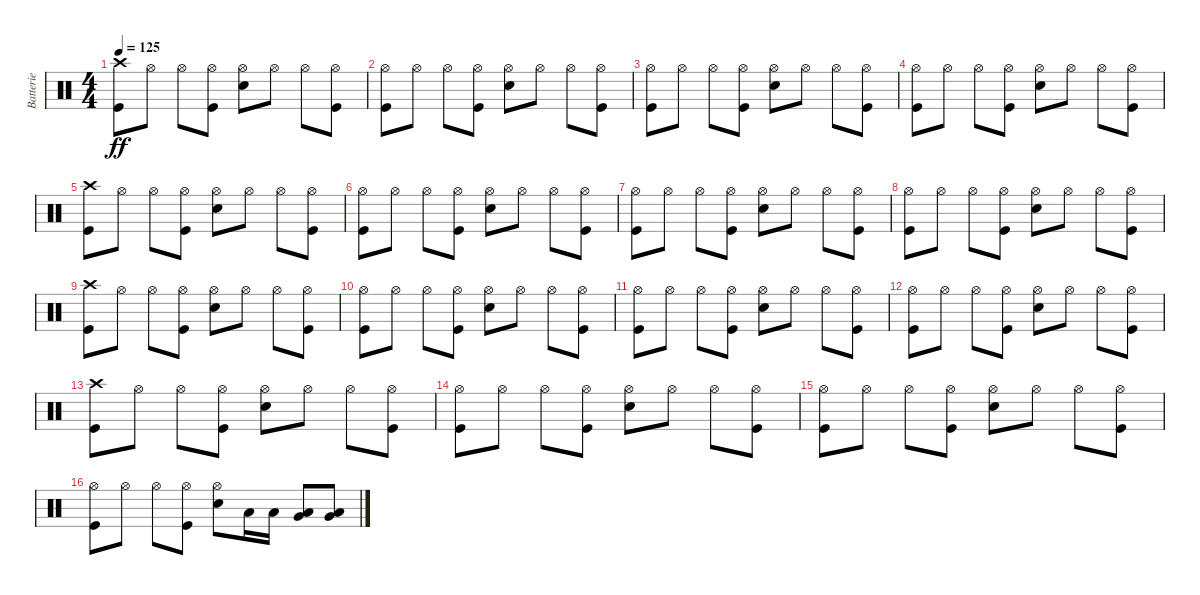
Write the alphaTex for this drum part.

\track ("Batterie" "Batterie") {instrument percussion}
\staff {score}
\articulation defaults
\ts (4 4)
\tempo 125
\clef neutral
\ks c
("Crash high (hit)" "Kick (hit)").8{dy ff} "Hi-Hat (open)".8 "Hi-Hat (open)".8 ("Hi-Hat (open)" "Kick (hit)").8 ("Hi-Hat (open)" "Electric Snare (hit)").8 "Hi-Hat (open)".8 "Hi-Hat (open)".8 ("Hi-Hat (open)" "Kick (hit)").8 |
("Hi-Hat (open)" "Kick (hit)").8 "Hi-Hat (open)".8 "Hi-Hat (open)".8 ("Hi-Hat (open)" "Kick (hit)").8 ("Hi-Hat (open)" "Electric Snare (hit)").8 "Hi-Hat (open)".8 "Hi-Hat (open)".8 ("Hi-Hat (open)" "Kick (hit)").8 |
("Hi-Hat (open)" "Kick (hit)").8 "Hi-Hat (open)".8 "Hi-Hat (open)".8 ("Hi-Hat (open)" "Kick (hit)").8 ("Hi-Hat (open)" "Electric Snare (hit)").8 "Hi-Hat (open)".8 "Hi-Hat (open)".8 ("Hi-Hat (open)" "Kick (hit)").8 |
("Hi-Hat (open)" "Kick (hit)").8 "Hi-Hat (open)".8 "Hi-Hat (open)".8 ("Hi-Hat (open)" "Kick (hit)").8 ("Hi-Hat (open)" "Electric Snare (hit)").8 "Hi-Hat (open)".8 "Hi-Hat (open)".8 ("Hi-Hat (open)" "Kick (hit)").8 |
("Crash high (hit)" "Kick (hit)").8 "Hi-Hat (open)".8 "Hi-Hat (open)".8 ("Hi-Hat (open)" "Kick (hit)").8 ("Hi-Hat (open)" "Electric Snare (hit)").8 "Hi-Hat (open)".8 "Hi-Hat (open)".8 ("Hi-Hat (open)" "Kick (hit)").8 |
("Hi-Hat (open)" "Kick (hit)").8 "Hi-Hat (open)".8 "Hi-Hat (open)".8 ("Hi-Hat (open)" "Kick (hit)").8 ("Hi-Hat (open)" "Electric Snare (hit)").8 "Hi-Hat (open)".8 "Hi-Hat (open)".8 ("Hi-Hat (open)" "Kick (hit)").8 |
("Hi-Hat (open)" "Kick (hit)").8 "Hi-Hat (open)".8 "Hi-Hat (open)".8 ("Hi-Hat (open)" "Kick (hit)").8 ("Hi-Hat (open)" "Electric Snare (hit)").8 "Hi-Hat (open)".8 "Hi-Hat (open)".8 ("Hi-Hat (open)" "Kick (hit)").8 |
("Hi-Hat (open)" "Kick (hit)").8 "Hi-Hat (open)".8 "Hi-Hat (open)".8 ("Hi-Hat (open)" "Kick (hit)").8 ("Hi-Hat (open)" "Electric Snare (hit)").8 "Hi-Hat (open)".8 "Hi-Hat (open)".8 ("Hi-Hat (open)" "Kick (hit)").8 |
("Crash high (hit)" "Kick (hit)").8 "Hi-Hat (open)".8 "Hi-Hat (open)".8 ("Hi-Hat (open)" "Kick (hit)").8 ("Hi-Hat (open)" "Electric Snare (hit)").8 "Hi-Hat (open)".8 "Hi-Hat (open)".8 ("Hi-Hat (open)" "Kick (hit)").8 |
("Hi-Hat (open)" "Kick (hit)").8 "Hi-Hat (open)".8 "Hi-Hat (open)".8 ("Hi-Hat (open)" "Kick (hit)").8 ("Hi-Hat (open)" "Electric Snare (hit)").8 "Hi-Hat (open)".8 "Hi-Hat (open)".8 ("Hi-Hat (open)" "Kick (hit)").8 |
("Hi-Hat (open)" "Kick (hit)").8 "Hi-Hat (open)".8 "Hi-Hat (open)".8 ("Hi-Hat (open)" "Kick (hit)").8 ("Hi-Hat (open)" "Electric Snare (hit)").8 "Hi-Hat (open)".8 "Hi-Hat (open)".8 ("Hi-Hat (open)" "Kick (hit)").8 |
("Hi-Hat (open)" "Kick (hit)").8 "Hi-Hat (open)".8 "Hi-Hat (open)".8 ("Hi-Hat (open)" "Kick (hit)").8 ("Hi-Hat (open)" "Electric Snare (hit)").8 "Hi-Hat (open)".8 "Hi-Hat (open)".8 ("Hi-Hat (open)" "Kick (hit)").8 |
("Crash high (hit)" "Kick (hit)").8 "Hi-Hat (open)".8 "Hi-Hat (open)".8 ("Hi-Hat (open)" "Kick (hit)").8 ("Hi-Hat (open)" "Electric Snare (hit)").8 "Hi-Hat (open)".8 "Hi-Hat (open)".8 ("Hi-Hat (open)" "Kick (hit)").8 |
("Hi-Hat (open)" "Kick (hit)").8 "Hi-Hat (open)".8 "Hi-Hat (open)".8 ("Hi-Hat (open)" "Kick (hit)").8 ("Hi-Hat (open)" "Electric Snare (hit)").8 "Hi-Hat (open)".8 "Hi-Hat (open)".8 ("Hi-Hat (open)" "Kick (hit)").8 |
("Hi-Hat (open)" "Kick (hit)").8 "Hi-Hat (open)".8 "Hi-Hat (open)".8 ("Hi-Hat (open)" "Kick (hit)").8 ("Hi-Hat (open)" "Electric Snare (hit)").8 "Hi-Hat (open)".8 "Hi-Hat (open)".8 ("Hi-Hat (open)" "Kick (hit)").8 |
("Hi-Hat (open)" "Kick (hit)").8 "Hi-Hat (open)".8 "Hi-Hat (open)".8 ("Hi-Hat (open)" "Kick (hit)").8 ("Hi-Hat (open)" "Electric Snare (hit)").8 "Low Tom (hit)".16 "Low Tom (hit)".16 ("Very Low Tom (hit)" "Low Floor Tom (hit)").8 ("Very Low Tom (hit)" "Low Floor Tom (hit)").8
